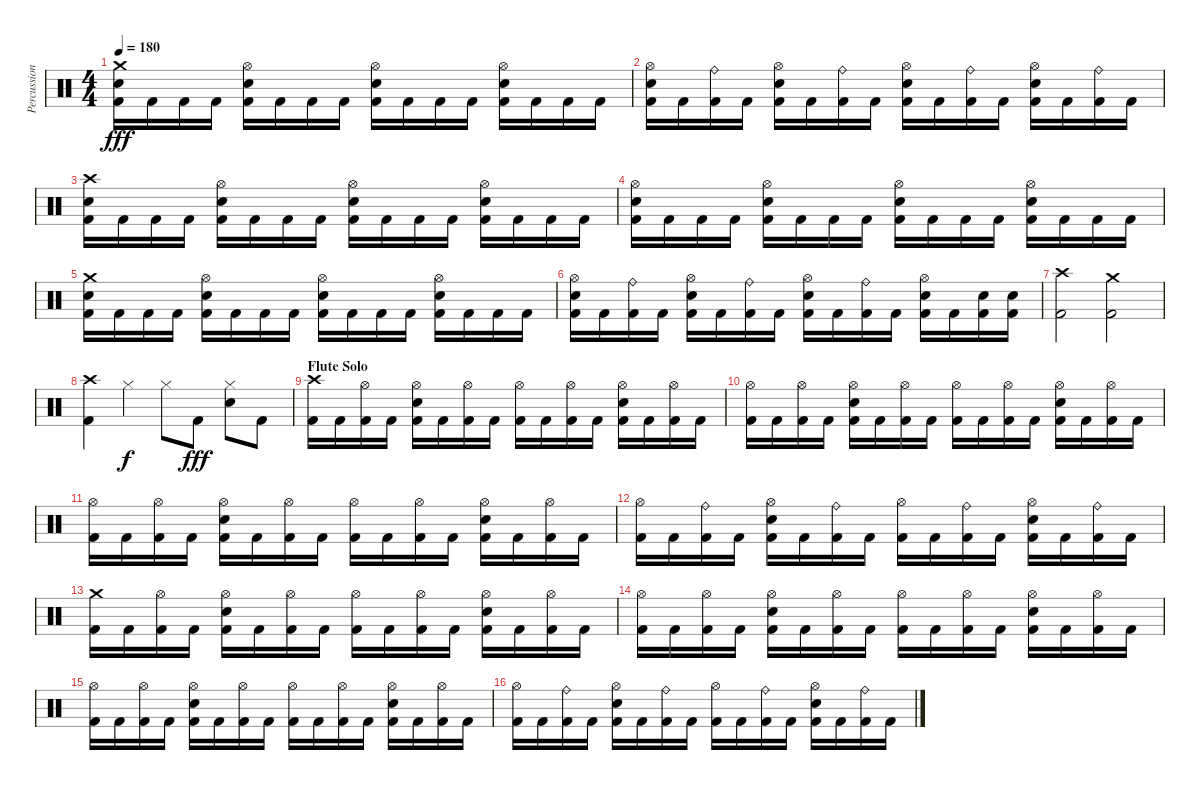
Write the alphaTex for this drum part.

\track ("Percussion" "Percussion") {instrument percussion}
\staff {score}
\articulation defaults
\ts (4 4)
\tempo 180
\clef neutral
\ks c
("Crash medium (hit)" "Snare (hit) 2" "Kick (hit) 2").16{dy fff} "Kick (hit) 2".16 "Kick (hit) 2".16 "Kick (hit) 2".16 ("Hi-Hat (open)" "Snare (hit) 2" "Kick (hit) 2").16 "Kick (hit) 2".16 "Kick (hit) 2".16 "Kick (hit) 2".16 ("Hi-Hat (open)" "Snare (hit) 2" "Kick (hit) 2").16 "Kick (hit) 2".16 "Kick (hit) 2".16 "Kick (hit) 2".16 ("Hi-Hat (open)" "Snare (hit) 2" "Kick (hit) 2").16 "Kick (hit) 2".16 "Kick (hit) 2".16 "Kick (hit) 2".16 |
("Hi-Hat (open)" "Snare (hit) 2" "Kick (hit) 2").16 "Kick (hit) 2".16 ("Ride (bell)" "Kick (hit) 2").16 "Kick (hit) 2".16 ("Hi-Hat (open)" "Snare (hit) 2" "Kick (hit) 2").16 "Kick (hit) 2".16 ("Ride (bell)" "Kick (hit) 2").16 "Kick (hit) 2".16 ("Hi-Hat (open)" "Snare (hit) 2" "Kick (hit) 2").16 "Kick (hit) 2".16 ("Ride (bell)" "Kick (hit) 2").16 "Kick (hit) 2".16 ("Hi-Hat (open)" "Snare (hit) 2" "Kick (hit) 2").16 "Kick (hit) 2".16 ("Ride (bell)" "Kick (hit) 2").16 "Kick (hit) 2".16 |
("Crash high (hit)" "Snare (hit) 2" "Kick (hit) 2").16 "Kick (hit) 2".16 "Kick (hit) 2".16 "Kick (hit) 2".16 ("Hi-Hat (open)" "Snare (hit) 2" "Kick (hit) 2").16 "Kick (hit) 2".16 "Kick (hit) 2".16 "Kick (hit) 2".16 ("Hi-Hat (open)" "Snare (hit) 2" "Kick (hit) 2").16 "Kick (hit) 2".16 "Kick (hit) 2".16 "Kick (hit) 2".16 ("Hi-Hat (open)" "Snare (hit) 2" "Kick (hit) 2").16 "Kick (hit) 2".16 "Kick (hit) 2".16 "Kick (hit) 2".16 |
("Hi-Hat (open)" "Snare (hit) 2" "Kick (hit) 2").16 "Kick (hit) 2".16 "Kick (hit) 2".16 "Kick (hit) 2".16 ("Hi-Hat (open)" "Snare (hit) 2" "Kick (hit) 2").16 "Kick (hit) 2".16 "Kick (hit) 2".16 "Kick (hit) 2".16 ("Hi-Hat (open)" "Snare (hit) 2" "Kick (hit) 2").16 "Kick (hit) 2".16 "Kick (hit) 2".16 "Kick (hit) 2".16 ("Hi-Hat (open)" "Snare (hit) 2" "Kick (hit) 2").16 "Kick (hit) 2".16 "Kick (hit) 2".16 "Kick (hit) 2".16 |
("Crash medium (hit)" "Snare (hit) 2" "Kick (hit) 2").16 "Kick (hit) 2".16 "Kick (hit) 2".16 "Kick (hit) 2".16 ("Hi-Hat (open)" "Snare (hit) 2" "Kick (hit) 2").16 "Kick (hit) 2".16 "Kick (hit) 2".16 "Kick (hit) 2".16 ("Hi-Hat (open)" "Snare (hit) 2" "Kick (hit) 2").16 "Kick (hit) 2".16 "Kick (hit) 2".16 "Kick (hit) 2".16 ("Hi-Hat (open)" "Snare (hit) 2" "Kick (hit) 2").16 "Kick (hit) 2".16 "Kick (hit) 2".16 "Kick (hit) 2".16 |
("Hi-Hat (open)" "Snare (hit) 2" "Kick (hit) 2").16 "Kick (hit) 2".16 ("Ride (bell)" "Kick (hit) 2").16 "Kick (hit) 2".16 ("Hi-Hat (open)" "Snare (hit) 2" "Kick (hit) 2").16 "Kick (hit) 2".16 ("Ride (bell)" "Kick (hit) 2").16 "Kick (hit) 2".16 ("Hi-Hat (open)" "Snare (hit) 2" "Kick (hit) 2").16 "Kick (hit) 2".16 ("Ride (bell)" "Kick (hit) 2").16 "Kick (hit) 2".16 ("Hi-Hat (open)" "Snare (hit) 2" "Kick (hit) 2").16 "Kick (hit) 2".16 ("Snare (hit) 2" "Kick (hit) 2").16 ("Snare (hit) 2" "Kick (hit) 2").16 |
("Crash high (hit)" "Kick (hit) 2").2 ("Crash medium (hit)" "Kick (hit) 2").2 |
("Crash high (hit)" "Kick (hit) 2").4 "Hi-Hat (closed)".4{dy f} "Hi-Hat (closed)".8 "Kick (hit) 2".8{dy fff} ("Hi-Hat (closed)" "Snare (hit) 2").8 "Kick (hit) 2".8 |
\section ("" "Flute Solo")
("Crash high (hit)" "Kick (hit) 2").16 "Kick (hit) 2".16 ("Hi-Hat (open)" "Kick (hit) 2").16 "Kick (hit) 2".16 ("Hi-Hat (open)" "Snare (hit) 2" "Kick (hit) 2").16 "Kick (hit) 2".16 ("Hi-Hat (open)" "Kick (hit) 2").16 "Kick (hit) 2".16 ("Hi-Hat (open)" "Kick (hit) 2").16 "Kick (hit) 2".16 ("Hi-Hat (open)" "Kick (hit) 2").16 "Kick (hit) 2".16 ("Hi-Hat (open)" "Snare (hit) 2" "Kick (hit) 2").16 "Kick (hit) 2".16 ("Hi-Hat (open)" "Kick (hit) 2").16 "Kick (hit) 2".16 |
("Hi-Hat (open)" "Kick (hit) 2").16 "Kick (hit) 2".16 ("Hi-Hat (open)" "Kick (hit) 2").16 "Kick (hit) 2".16 ("Hi-Hat (open)" "Snare (hit) 2" "Kick (hit) 2").16 "Kick (hit) 2".16 ("Hi-Hat (open)" "Kick (hit) 2").16 "Kick (hit) 2".16 ("Hi-Hat (open)" "Kick (hit) 2").16 "Kick (hit) 2".16 ("Hi-Hat (open)" "Kick (hit) 2").16 "Kick (hit) 2".16 ("Hi-Hat (open)" "Snare (hit) 2" "Kick (hit) 2").16 "Kick (hit) 2".16 ("Hi-Hat (open)" "Kick (hit) 2").16 "Kick (hit) 2".16 |
("Hi-Hat (open)" "Kick (hit) 2").16 "Kick (hit) 2".16 ("Hi-Hat (open)" "Kick (hit) 2").16 "Kick (hit) 2".16 ("Hi-Hat (open)" "Snare (hit) 2" "Kick (hit) 2").16 "Kick (hit) 2".16 ("Hi-Hat (open)" "Kick (hit) 2").16 "Kick (hit) 2".16 ("Hi-Hat (open)" "Kick (hit) 2").16 "Kick (hit) 2".16 ("Hi-Hat (open)" "Kick (hit) 2").16 "Kick (hit) 2".16 ("Hi-Hat (open)" "Snare (hit) 2" "Kick (hit) 2").16 "Kick (hit) 2".16 ("Hi-Hat (open)" "Kick (hit) 2").16 "Kick (hit) 2".16 |
("Hi-Hat (open)" "Kick (hit) 2").16 "Kick (hit) 2".16 ("Ride (bell)" "Kick (hit) 2").16 "Kick (hit) 2".16 ("Hi-Hat (open)" "Snare (hit) 2" "Kick (hit) 2").16 "Kick (hit) 2".16 ("Ride (bell)" "Kick (hit) 2").16 "Kick (hit) 2".16 ("Hi-Hat (open)" "Kick (hit) 2").16 "Kick (hit) 2".16 ("Ride (bell)" "Kick (hit) 2").16 "Kick (hit) 2".16 ("Hi-Hat (open)" "Snare (hit) 2" "Kick (hit) 2").16 "Kick (hit) 2".16 ("Ride (bell)" "Kick (hit) 2").16 "Kick (hit) 2".16 |
("Crash medium (hit)" "Kick (hit) 2").16 "Kick (hit) 2".16 ("Hi-Hat (open)" "Kick (hit) 2").16 "Kick (hit) 2".16 ("Hi-Hat (open)" "Snare (hit) 2" "Kick (hit) 2").16 "Kick (hit) 2".16 ("Hi-Hat (open)" "Kick (hit) 2").16 "Kick (hit) 2".16 ("Hi-Hat (open)" "Kick (hit) 2").16 "Kick (hit) 2".16 ("Hi-Hat (open)" "Kick (hit) 2").16 "Kick (hit) 2".16 ("Hi-Hat (open)" "Snare (hit) 2" "Kick (hit) 2").16 "Kick (hit) 2".16 ("Hi-Hat (open)" "Kick (hit) 2").16 "Kick (hit) 2".16 |
("Hi-Hat (open)" "Kick (hit) 2").16 "Kick (hit) 2".16 ("Hi-Hat (open)" "Kick (hit) 2").16 "Kick (hit) 2".16 ("Hi-Hat (open)" "Snare (hit) 2" "Kick (hit) 2").16 "Kick (hit) 2".16 ("Hi-Hat (open)" "Kick (hit) 2").16 "Kick (hit) 2".16 ("Hi-Hat (open)" "Kick (hit) 2").16 "Kick (hit) 2".16 ("Hi-Hat (open)" "Kick (hit) 2").16 "Kick (hit) 2".16 ("Hi-Hat (open)" "Snare (hit) 2" "Kick (hit) 2").16 "Kick (hit) 2".16 ("Hi-Hat (open)" "Kick (hit) 2").16 "Kick (hit) 2".16 |
("Hi-Hat (open)" "Kick (hit) 2").16 "Kick (hit) 2".16 ("Hi-Hat (open)" "Kick (hit) 2").16 "Kick (hit) 2".16 ("Hi-Hat (open)" "Snare (hit) 2" "Kick (hit) 2").16 "Kick (hit) 2".16 ("Hi-Hat (open)" "Kick (hit) 2").16 "Kick (hit) 2".16 ("Hi-Hat (open)" "Kick (hit) 2").16 "Kick (hit) 2".16 ("Hi-Hat (open)" "Kick (hit) 2").16 "Kick (hit) 2".16 ("Hi-Hat (open)" "Snare (hit) 2" "Kick (hit) 2").16 "Kick (hit) 2".16 ("Hi-Hat (open)" "Kick (hit) 2").16 "Kick (hit) 2".16 |
("Hi-Hat (open)" "Kick (hit) 2").16 "Kick (hit) 2".16 ("Ride (bell)" "Kick (hit) 2").16 "Kick (hit) 2".16 ("Hi-Hat (open)" "Snare (hit) 2" "Kick (hit) 2").16 "Kick (hit) 2".16 ("Ride (bell)" "Kick (hit) 2").16 "Kick (hit) 2".16 ("Hi-Hat (open)" "Kick (hit) 2").16 "Kick (hit) 2".16 ("Ride (bell)" "Kick (hit) 2").16 "Kick (hit) 2".16 ("Hi-Hat (open)" "Snare (hit) 2" "Kick (hit) 2").16 "Kick (hit) 2".16 ("Ride (bell)" "Kick (hit) 2").16 "Kick (hit) 2".16
